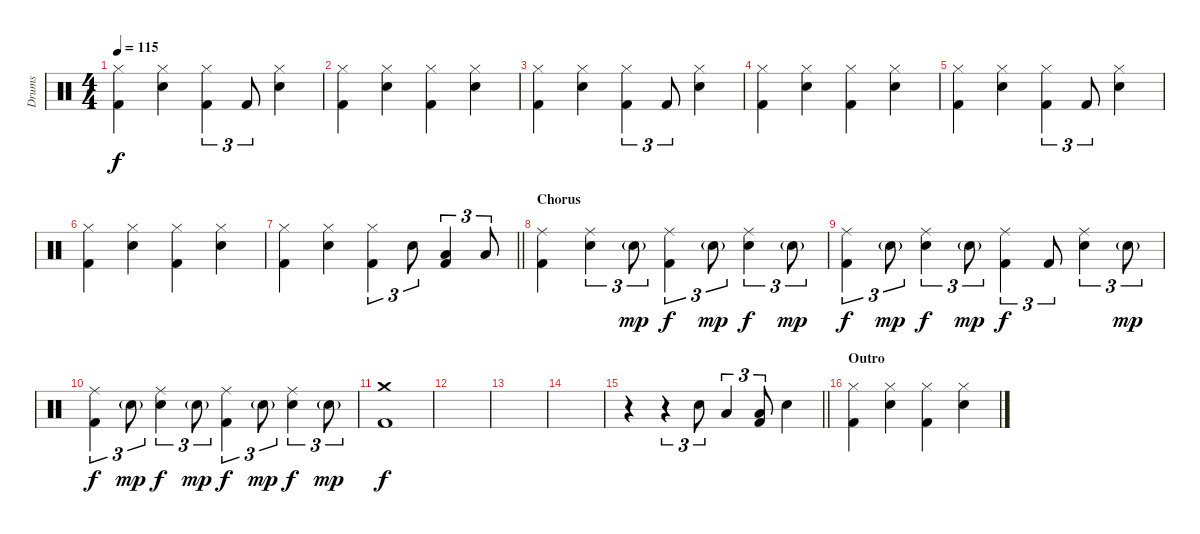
\track ("Drums" "Drums") {instrument percussion}
\staff {score}
\articulation defaults
\ts (4 4)
\tempo 115
\clef neutral
\ks c
("Hi-Hat (closed)" "Kick (hit) 2").4{dy f} ("Hi-Hat (closed)" "Electric Snare (hit)").4 ("Hi-Hat (closed)" "Kick (hit) 2").4{tu (3 2)} "Kick (hit) 2".8{tu (3 2)} ("Hi-Hat (closed)" "Electric Snare (hit)").4 |
("Hi-Hat (closed)" "Kick (hit) 2").4 ("Hi-Hat (closed)" "Electric Snare (hit)").4 ("Hi-Hat (closed)" "Kick (hit) 2").4 ("Hi-Hat (closed)" "Electric Snare (hit)").4 |
("Hi-Hat (closed)" "Kick (hit) 2").4 ("Hi-Hat (closed)" "Electric Snare (hit)").4 ("Hi-Hat (closed)" "Kick (hit) 2").4{tu (3 2)} "Kick (hit) 2".8{tu (3 2)} ("Hi-Hat (closed)" "Electric Snare (hit)").4 |
("Hi-Hat (closed)" "Kick (hit) 2").4 ("Hi-Hat (closed)" "Electric Snare (hit)").4 ("Hi-Hat (closed)" "Kick (hit) 2").4 ("Hi-Hat (closed)" "Electric Snare (hit)").4 |
("Hi-Hat (closed)" "Kick (hit) 2").4 ("Hi-Hat (closed)" "Electric Snare (hit)").4 ("Hi-Hat (closed)" "Kick (hit) 2").4{tu (3 2)} "Kick (hit) 2".8{tu (3 2)} ("Hi-Hat (closed)" "Electric Snare (hit)").4 |
("Hi-Hat (closed)" "Kick (hit) 2").4 ("Hi-Hat (closed)" "Electric Snare (hit)").4 ("Hi-Hat (closed)" "Kick (hit) 2").4 ("Hi-Hat (closed)" "Electric Snare (hit)").4 |
\barLineRight lightlight
("Hi-Hat (closed)" "Kick (hit) 2").4 ("Hi-Hat (closed)" "Electric Snare (hit)").4 ("Hi-Hat (closed)" "Kick (hit) 2").4{tu (3 2)} "Electric Snare (hit)".8{tu (3 2)} ("Low Tom (hit)" "Kick (hit) 2").4{tu (3 2)} "Low Floor Tom (hit)".8{tu (3 2)} |
\section ("" "Chorus")
("Ride (middle)" "Kick (hit) 2").4 ("Ride (middle)" "Electric Snare (hit)").4{tu (3 2)} "Electric Snare (hit)"{g}.8{tu (3 2) dy mp} ("Ride (middle)" "Kick (hit) 2").4{tu (3 2) dy f} "Electric Snare (hit)"{g}.8{tu (3 2) dy mp} ("Ride (middle)" "Electric Snare (hit)").4{tu (3 2) dy f} "Electric Snare (hit)"{g}.8{tu (3 2) dy mp} |
("Ride (middle)" "Kick (hit) 2").4{tu (3 2) dy f} "Electric Snare (hit)"{g}.8{tu (3 2) dy mp} ("Ride (middle)" "Electric Snare (hit)").4{tu (3 2) dy f} "Electric Snare (hit)"{g}.8{tu (3 2) dy mp} ("Ride (middle)" "Kick (hit) 2").4{tu (3 2) dy f} "Kick (hit) 2".8{tu (3 2)} ("Ride (middle)" "Electric Snare (hit)").4{tu (3 2)} "Electric Snare (hit)"{g}.8{tu (3 2) dy mp} |
("Ride (middle)" "Kick (hit) 2").4{tu (3 2) dy f} "Electric Snare (hit)"{g}.8{tu (3 2) dy mp} ("Ride (middle)" "Electric Snare (hit)").4{tu (3 2) dy f} "Electric Snare (hit)"{g}.8{tu (3 2) dy mp} ("Ride (middle)" "Kick (hit) 2").4{tu (3 2) dy f} "Electric Snare (hit)"{g}.8{tu (3 2) dy mp} ("Ride (middle)" "Electric Snare (hit)").4{tu (3 2) dy f} "Electric Snare (hit)"{g}.8{tu (3 2) dy mp} |
("Crash medium (hit)" "Kick (hit) 2").1{dy f} |
|
|
|
\barLineRight lightlight
r.4 r.4{tu (3 2)} "Electric Snare (hit)".8{tu (3 2)} "Low Tom (hit)".4{tu (3 2)} ("Low Floor Tom (hit)" "Kick (hit) 2").8{tu (3 2)} "Electric Snare (hit)".4 |
\section ("" "Outro")
("Hi-Hat (closed)" "Kick (hit) 2").4 ("Hi-Hat (closed)" "Electric Snare (hit)").4 ("Hi-Hat (closed)" "Kick (hit) 2").4 ("Hi-Hat (closed)" "Electric Snare (hit)").4
